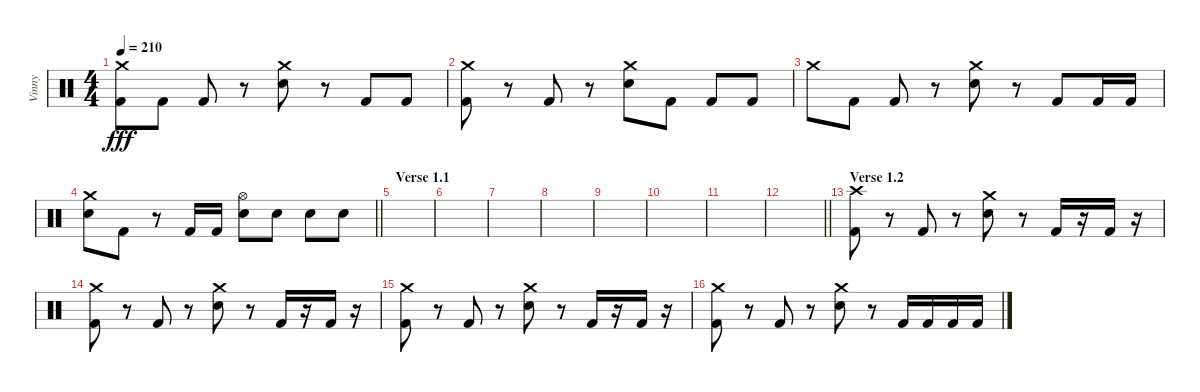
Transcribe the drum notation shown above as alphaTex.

\track ("Vinny" "Vinny") {instrument percussion}
\staff {score}
\articulation defaults
\ts (4 4)
\tempo 210
\clef neutral
\ks c
("Crash medium (hit)" "Kick (hit) 2").8{dy fff} "Kick (hit) 2".8 "Kick (hit) 2".8 r.8 ("Crash medium (hit)" "Electric Snare (hit)").8 r.8 "Kick (hit) 2".8 "Kick (hit) 2".8 |
("Crash medium (hit)" "Kick (hit) 2").8 r.8 "Kick (hit) 2".8 r.8 ("Crash medium (hit)" "Electric Snare (hit)").8 "Kick (hit) 2".8 "Kick (hit) 2".8 "Kick (hit) 2".8 |
"Crash medium (hit)".8 "Kick (hit) 2".8 "Kick (hit) 2".8 r.8 ("Crash medium (hit)" "Electric Snare (hit)").8 r.8 "Kick (hit) 2".8 "Kick (hit) 2".16 "Kick (hit) 2".16 |
\barLineRight lightlight
("Crash medium (hit)" "Electric Snare (hit)").8 "Kick (hit) 2".8 r.8 "Kick (hit) 2".16 "Kick (hit) 2".16 ("Hi-Hat (open)" "Electric Snare (hit)").8 "Electric Snare (hit)".8 "Electric Snare (hit)".8 "Electric Snare (hit)".8 |
\section ("" "Verse 1.1")
|
|
|
|
|
|
|
\barLineRight lightlight
|
\section ("" "Verse 1.2")
("Crash high (hit)" "Kick (hit) 2").8 r.8 "Kick (hit) 2".8 r.8 ("Crash medium (hit)" "Electric Snare (hit)").8 r.8 "Kick (hit) 2".16 r.16 "Kick (hit) 2".16 r.16 |
("Crash medium (hit)" "Kick (hit) 2").8 r.8 "Kick (hit) 2".8 r.8 ("Crash medium (hit)" "Electric Snare (hit)").8 r.8 "Kick (hit) 2".16 r.16 "Kick (hit) 2".16 r.16 |
("Crash medium (hit)" "Kick (hit) 2").8 r.8 "Kick (hit) 2".8 r.8 ("Crash medium (hit)" "Electric Snare (hit)").8 r.8 "Kick (hit) 2".16 r.16 "Kick (hit) 2".16 r.16 |
("Crash medium (hit)" "Kick (hit) 2").8 r.8 "Kick (hit) 2".8 r.8 ("Crash medium (hit)" "Electric Snare (hit)").8 r.8 "Kick (hit) 2".16 "Kick (hit) 2".16 "Kick (hit) 2".16 "Kick (hit) 2".16
